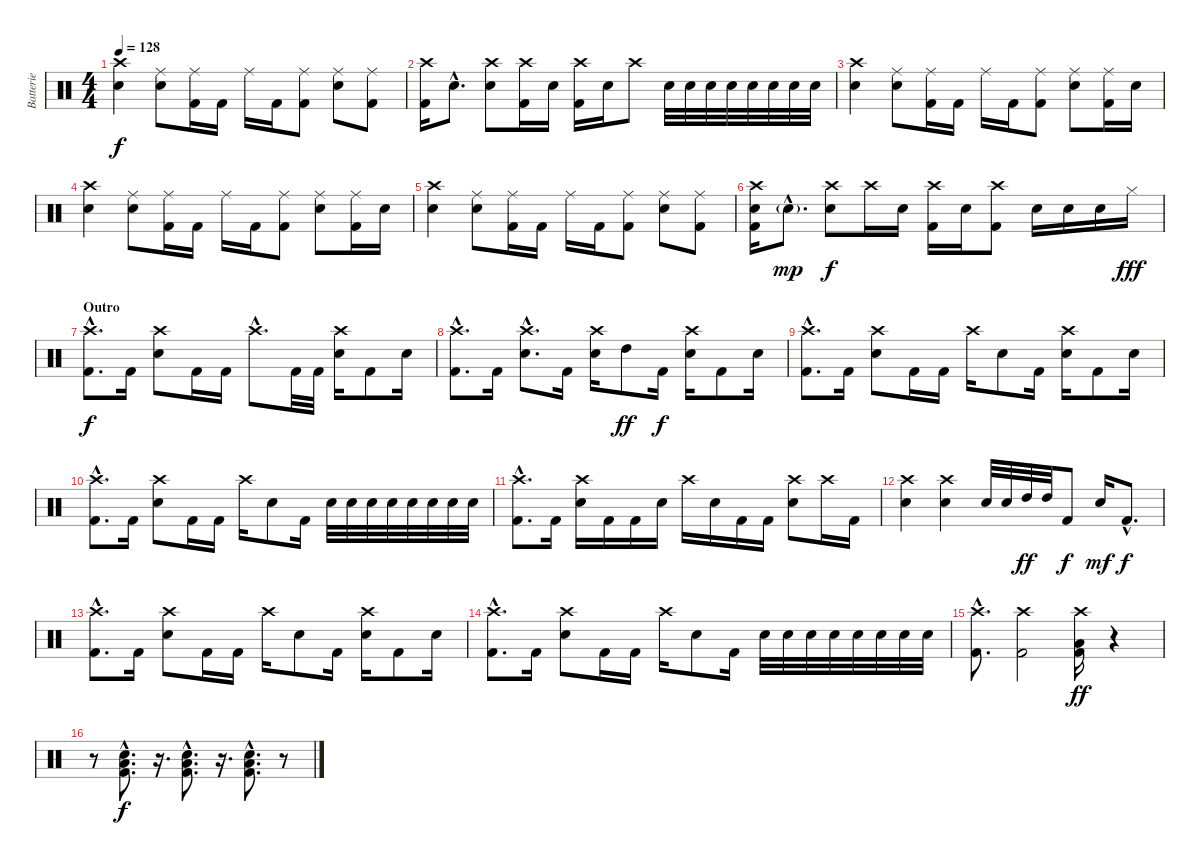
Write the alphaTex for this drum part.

\track ("Batterie" "Batterie") {instrument percussion}
\staff {score}
\articulation defaults
\ts (4 4)
\tempo 128
\clef neutral
\ks c
("Crash high (hit)" "Electric Snare (hit)").4{dy f} ("Ride (middle)" "Electric Snare (hit)").8 ("Ride (middle)" "Kick (hit) 2").16 "Kick (hit) 2".16 "Ride (middle)".16 "Kick (hit) 2".16 ("Ride (middle)" "Kick (hit) 2").8 ("Ride (middle)" "Electric Snare (hit)").8 ("Ride (middle)" "Kick (hit) 2").8 |
("Crash high (hit)" "Kick (hit) 2").16 "Electric Snare (hit)"{hac}.8{d} ("Crash high (hit)" "Electric Snare (hit)").8 ("Crash high (hit)" "Kick (hit) 2").16 "Electric Snare (hit)".16 ("Crash high (hit)" "Kick (hit) 2").16 "Electric Snare (hit)".16 "Crash high (hit)".8 "Electric Snare (hit)".32 "Electric Snare (hit)".32 "Electric Snare (hit)".32 "Electric Snare (hit)".32 "Electric Snare (hit)".32 "Electric Snare (hit)".32 "Electric Snare (hit)".32 "Electric Snare (hit)".32 |
("Crash high (hit)" "Electric Snare (hit)").4 ("Ride (middle)" "Electric Snare (hit)").8 ("Ride (middle)" "Kick (hit) 2").16 "Kick (hit) 2".16 "Ride (middle)".16 "Kick (hit) 2".16 ("Ride (middle)" "Kick (hit) 2").8 ("Ride (middle)" "Electric Snare (hit)").8 ("Ride (middle)" "Kick (hit) 2").16 "Electric Snare (hit)".16 |
("Crash high (hit)" "Electric Snare (hit)").4 ("Ride (middle)" "Electric Snare (hit)").8 ("Ride (middle)" "Kick (hit) 2").16 "Kick (hit) 2".16 "Ride (middle)".16 "Kick (hit) 2".16 ("Ride (middle)" "Kick (hit) 2").8 ("Ride (middle)" "Electric Snare (hit)").8 ("Ride (middle)" "Kick (hit) 2").16 "Electric Snare (hit)".16 |
("Crash high (hit)" "Electric Snare (hit)").4 ("Ride (middle)" "Electric Snare (hit)").8 ("Ride (middle)" "Kick (hit) 2").16 "Kick (hit) 2".16 "Ride (middle)".16 "Kick (hit) 2".16 ("Ride (middle)" "Kick (hit) 2").8 ("Ride (middle)" "Electric Snare (hit)").8 ("Ride (middle)" "Kick (hit) 2").8 |
("Crash high (hit)" "Electric Snare (hit)" "Kick (hit) 2").16 "Electric Snare (hit)"{g hac}.8{d dy mp} ("Crash high (hit)" "Electric Snare (hit)").8{dy f} "Crash high (hit)".16 "Electric Snare (hit)".16 ("Crash high (hit)" "Kick (hit) 2").16 "Electric Snare (hit)".16 ("Crash high (hit)" "Kick (hit) 2").8 "Electric Snare (hit)".16 "Electric Snare (hit)".16 "Electric Snare (hit)".16 "Hi-Hat (closed)".16{dy fff} |
\section ("" "Outro")
("Crash high (hit)"{hac} "Kick (hit) 2"{hac}).8{d dy f} "Kick (hit) 2".16 ("Crash high (hit)" "Electric Snare (hit)").8 "Kick (hit) 2".16 "Kick (hit) 2".16 "Crash high (hit)"{hac}.8{d} "Kick (hit) 2".32 "Kick (hit) 2".32 ("Crash high (hit)" "Electric Snare (hit)").16 "Kick (hit) 2".8 "Electric Snare (hit)".16 |
("Crash high (hit)"{hac} "Kick (hit) 2"{hac}).8{d} "Kick (hit) 2".16 ("Crash high (hit)"{hac} "Electric Snare (hit)"{hac}).8{d} "Kick (hit) 2".16 ("Crash high (hit)" "Electric Snare (hit)").16 "High Tom (hit)".8{dy ff} "Kick (hit) 2".16{dy f} ("Crash high (hit)" "Electric Snare (hit)").16 "Kick (hit) 2".8 "Electric Snare (hit)".16 |
("Crash high (hit)"{hac} "Kick (hit) 2"{hac}).8{d} "Kick (hit) 2".16 ("Crash high (hit)" "Electric Snare (hit)").8 "Kick (hit) 2".16 "Kick (hit) 2".16 "Crash high (hit)".16 "Electric Snare (hit)".8 "Kick (hit) 2".16 ("Crash high (hit)" "Electric Snare (hit)").16 "Kick (hit) 2".8 "Electric Snare (hit)".16 |
("Crash high (hit)"{hac} "Kick (hit) 2"{hac}).8{d} "Kick (hit) 2".16 ("Crash high (hit)" "Electric Snare (hit)").8 "Kick (hit) 2".16 "Kick (hit) 2".16 "Crash high (hit)".16 "Electric Snare (hit)".8 "Kick (hit) 2".16 "Electric Snare (hit)".32 "Electric Snare (hit)".32 "Electric Snare (hit)".32 "Electric Snare (hit)".32 "Electric Snare (hit)".32 "Electric Snare (hit)".32 "Electric Snare (hit)".32 "Electric Snare (hit)".32 |
("Crash high (hit)"{hac} "Kick (hit) 2"{hac}).8{d} "Kick (hit) 2".16 ("Crash high (hit)" "Electric Snare (hit)").16 "Kick (hit) 2".16 "Kick (hit) 2".16 "Electric Snare (hit)".16 "Crash high (hit)".16 "Electric Snare (hit)".16 "Kick (hit) 2".16 "Kick (hit) 2".16 ("Crash high (hit)" "Electric Snare (hit)").8 "Crash high (hit)".16 "Kick (hit) 2".16 |
("Crash high (hit)" "Electric Snare (hit)").4 ("Crash high (hit)" "Electric Snare (hit)").4 "Electric Snare (hit)".32 "Electric Snare (hit)".32 "High Tom (hit)".32{dy ff} "High Tom (hit)".32 "Kick (hit) 2".8{dy f} "Electric Snare (hit)".16{dy mf} "Kick (hit) 2"{hac}.8{d dy f} |
("Crash high (hit)"{hac} "Kick (hit) 2"{hac}).8{d} "Kick (hit) 2".16 ("Crash high (hit)" "Electric Snare (hit)").8 "Kick (hit) 2".16 "Kick (hit) 2".16 "Crash high (hit)".16 "Electric Snare (hit)".8 "Kick (hit) 2".16 ("Crash high (hit)" "Electric Snare (hit)").16 "Kick (hit) 2".8 "Electric Snare (hit)".16 |
("Crash high (hit)"{hac} "Kick (hit) 2"{hac}).8{d} "Kick (hit) 2".16 ("Crash high (hit)" "Electric Snare (hit)").8 "Kick (hit) 2".16 "Kick (hit) 2".16 "Crash high (hit)".16 "Electric Snare (hit)".8 "Kick (hit) 2".16 "Electric Snare (hit)".32 "Electric Snare (hit)".32 "Electric Snare (hit)".32 "Electric Snare (hit)".32 "Electric Snare (hit)".32 "Electric Snare (hit)".32 "Electric Snare (hit)".32 "Electric Snare (hit)".32 |
("Crash high (hit)"{hac} "Kick (hit) 2"{hac}).8{d} ("Crash high (hit)" "Kick (hit) 2").2 ("Crash high (hit)" "Low Floor Tom (hit)" "Kick (hit) 2").16{dy ff} r.4 |
r.8 ("Electric Snare (hit)"{hac} "Low Floor Tom (hit)"{hac} "Kick (hit) 2"{hac}).8{d dy f} r.16{d} ("Electric Snare (hit)"{hac} "Low Floor Tom (hit)"{hac} "Kick (hit) 2"{hac}).8{d} r.16{d} ("Electric Snare (hit)"{hac} "Low Floor Tom (hit)"{hac} "Kick (hit) 2"{hac}).8{d} r.8
